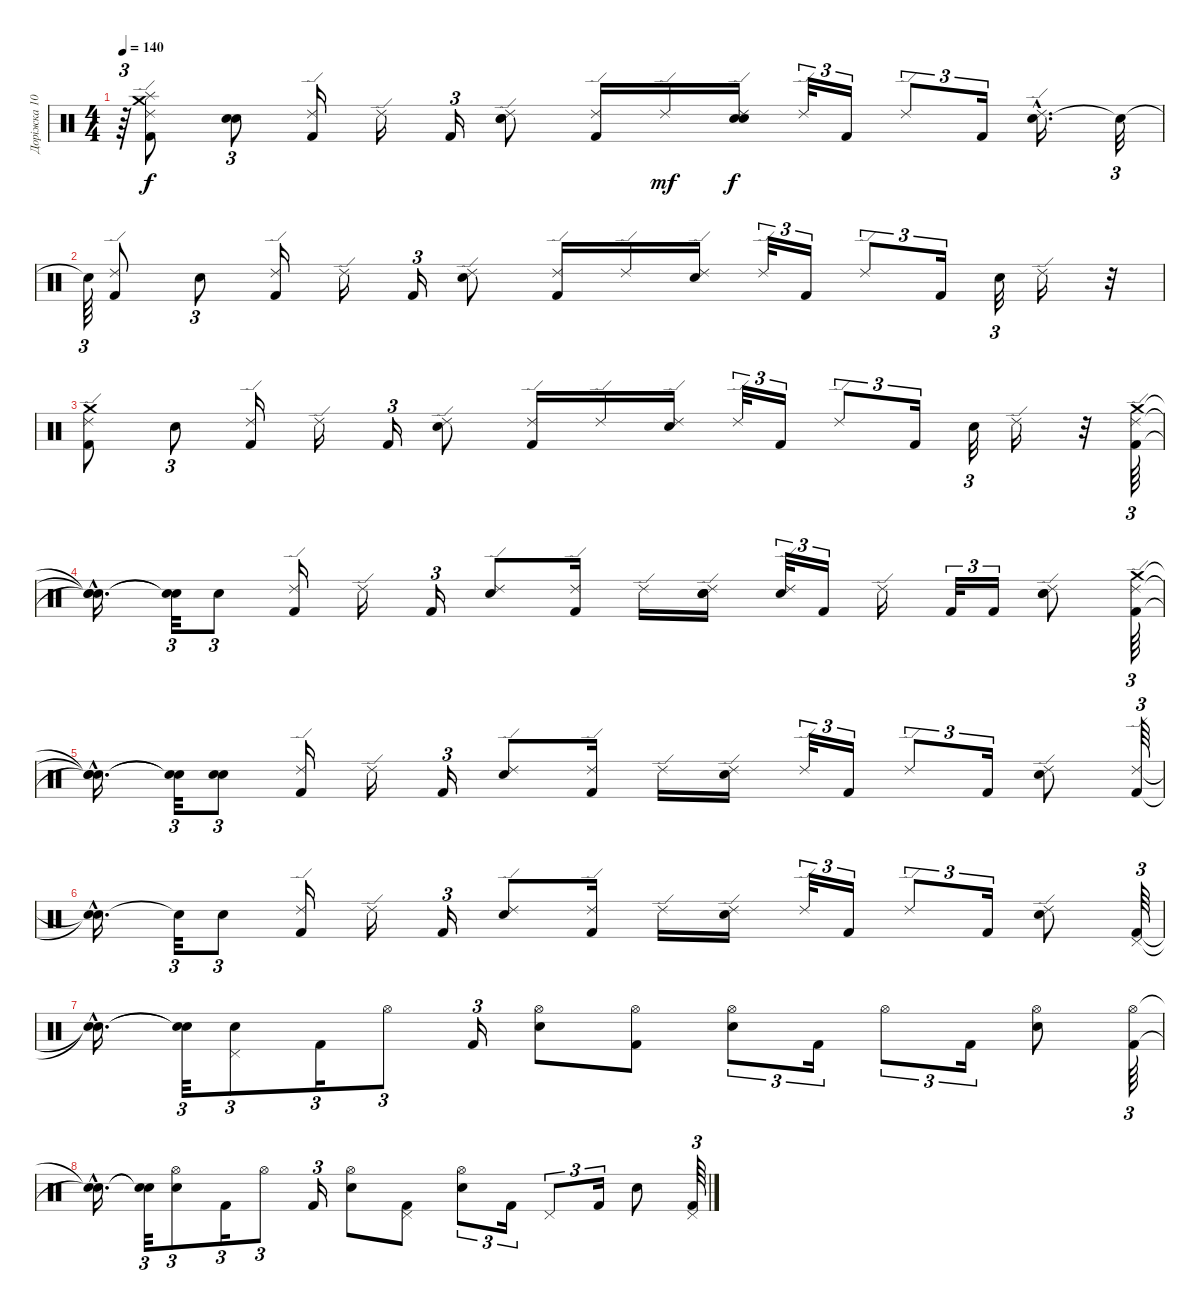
\track ("Доріжка 10" "Доріжка 10") {instrument percussion}
\staff {score}
\articulation defaults
\ts (4 4)
\tempo 140
\clef neutral
\ks c
r.64{tu (3 2) dy f} ("Kick (hit) 2" "Splash (hit)" "Ride (edge) 2" "Crash medium (hit)").8 ("Electric Snare (hit)" "Electric Snare (hit)").8{tu (3 2)} ("Kick (hit) 2" "Ride (edge) 2").16 "Ride (edge) 2".16 "Kick (hit) 2".16{tu (3 2)} ("Electric Snare (hit)" "Electric Snare (hit)" "Ride (edge) 2").8 ("Kick (hit) 2" "Ride (edge) 2").16 "Ride (edge) 2".16{dy mf} ("Electric Snare (hit)" "Electric Snare (hit)" "Ride (edge) 2").16{dy f} "Ride (edge) 2".32{tu (3 2)} "Kick (hit) 2".16{tu (3 2)} "Ride (edge) 2".8{tu (3 2)} "Kick (hit) 2".16{tu (3 2)} ("Electric Snare (hit)"{hac} "Ride (edge) 2").16{d} "Snare (hit)"{t}.32{tu (3 2)} |
"Snare (hit)"{t}.64{tu (3 2)} ("Ride (edge) 2" "Kick (hit) 2").8 "Electric Snare (hit)".8{tu (3 2)} ("Ride (edge) 2" "Kick (hit) 2").16 "Ride (edge) 2".16 "Kick (hit) 2".16{tu (3 2)} ("Ride (edge) 2" "Electric Snare (hit)").8 ("Ride (edge) 2" "Kick (hit) 2").16 "Ride (edge) 2".16 ("Ride (edge) 2" "Electric Snare (hit)").16 "Ride (edge) 2".32{tu (3 2)} "Kick (hit) 2".16{tu (3 2)} "Ride (edge) 2".8{tu (3 2)} "Kick (hit) 2".16{tu (3 2)} "Electric Snare (hit)".32{tu (3 2)} "Ride (edge) 2".16 r.32 |
("Ride (edge) 2" "Crash medium (hit)" "Kick (hit) 2").8 "Electric Snare (hit)".8{tu (3 2)} ("Kick (hit) 2" "Ride (edge) 2").16 "Ride (edge) 2".16 "Kick (hit) 2".16{tu (3 2)} ("Ride (edge) 2" "Electric Snare (hit)").8 ("Ride (edge) 2" "Kick (hit) 2").16 "Ride (edge) 2".16 ("Ride (edge) 2" "Electric Snare (hit)").16 "Ride (edge) 2".32{tu (3 2)} "Kick (hit) 2".16{tu (3 2)} "Ride (edge) 2".8{tu (3 2)} "Kick (hit) 2".16{tu (3 2)} "Electric Snare (hit)".32{tu (3 2)} "Ride (edge) 2".16 r.32 ("Ride (edge) 2" "Crash medium (hit)" "Kick (hit) 2").64{tu (3 2)} |
("Snare (hit)"{hac t} "Snare (hit)"{hac t} "Snare (hit)"{hac t}).16{d} ("Snare (hit)"{t} "Snare (hit)"{t}).32{tu (3 2)} "Electric Snare (hit)".8{tu (3 2)} ("Kick (hit) 2" "Ride (edge) 2").16 "Ride (edge) 2".16 "Kick (hit) 2".16{tu (3 2)} ("Ride (edge) 2" "Electric Snare (hit)").8 ("Ride (edge) 2" "Kick (hit) 2").16 "Ride (edge) 2".16 ("Ride (edge) 2" "Electric Snare (hit)" "Electric Snare (hit)" "Electric Snare (hit)").16 ("Ride (edge) 2" "Electric Snare (hit)").32{tu (3 2)} "Kick (hit) 2".16{tu (3 2)} "Ride (edge) 2".16 "Kick (hit) 2".32{tu (3 2)} "Kick (hit) 2".16{tu (3 2)} ("Electric Snare (hit)" "Electric Snare (hit)" "Ride (edge) 2").8 ("Ride (edge) 2" "Kick (hit) 2" "Crash medium (hit)").64{tu (3 2)} |
("Snare (hit)"{hac t} "Snare (hit)"{hac t} "Snare (hit)"{hac t}).16{d} ("Snare (hit)"{t} "Snare (hit)"{t}).32{tu (3 2)} ("Electric Snare (hit)" "Electric Snare (hit)").8{tu (3 2)} ("Ride (edge) 2" "Kick (hit) 2").16 "Ride (edge) 2".16 "Kick (hit) 2".16{tu (3 2)} ("Ride (edge) 2" "Electric Snare (hit)").8 ("Ride (edge) 2" "Kick (hit) 2").16 "Ride (edge) 2".16 ("Ride (edge) 2" "Electric Snare (hit)").16 "Ride (edge) 2".32{tu (3 2)} "Kick (hit) 2".16{tu (3 2)} "Ride (edge) 2".8{tu (3 2)} "Kick (hit) 2".16{tu (3 2)} ("Ride (edge) 2" "Electric Snare (hit)").8 ("Ride (edge) 2" "Kick (hit) 2").64{tu (3 2)} |
("Snare (hit)"{hac t} "Snare (hit)"{hac t}).16{d} "Snare (hit)"{t}.32{tu (3 2)} "Electric Snare (hit)".8{tu (3 2)} ("Ride (edge) 2" "Kick (hit) 2").16 "Ride (edge) 2".16 "Kick (hit) 2".16{tu (3 2)} ("Electric Snare (hit)" "Ride (edge) 2").8 ("Ride (edge) 2" "Kick (hit) 2").16 "Ride (edge) 2".16 ("Ride (edge) 2" "Electric Snare (hit)").16 "Ride (edge) 2".32{tu (3 2)} "Kick (hit) 2".16{tu (3 2)} "Ride (edge) 2".8{tu (3 2)} "Kick (hit) 2".16{tu (3 2)} ("Ride (edge) 2" "Electric Snare (hit)").8 ("Pedal Hi-Hat (hit)" "Kick (hit) 2").64{tu (3 2)} |
("Snare (hit)"{hac t} "Snare (hit)"{hac t}).16{d} ("Snare (hit)"{t} "Snare (hit)"{t}).32{tu (3 2)} ("Pedal Hi-Hat (hit)" "Electric Snare (hit)").8{tu (3 2)} "Kick (hit) 2".16{tu (3 2)} "Hi-Hat (open)".8{tu (3 2)} "Kick (hit) 2".16{tu (3 2)} ("Hi-Hat (open)" "Electric Snare (hit)").8 ("Hi-Hat (open)" "Kick (hit) 2").8 ("Hi-Hat (open)" "Electric Snare (hit)").8{tu (3 2)} "Kick (hit) 2".16{tu (3 2)} "Hi-Hat (open)".8{tu (3 2)} "Kick (hit) 2".16{tu (3 2)} ("Hi-Hat (open)" "Electric Snare (hit)").8 ("Hi-Hat (open)" "Kick (hit) 2").64{tu (3 2)} |
("Snare (hit)"{hac t} "Snare (hit)"{hac t}).16{d} ("Snare (hit)"{t} "Snare (hit)"{t}).32{tu (3 2)} ("Hi-Hat (open)" "Electric Snare (hit)").8{tu (3 2)} "Kick (hit) 2".16{tu (3 2)} "Hi-Hat (open)".8{tu (3 2)} "Kick (hit) 2".16{tu (3 2)} ("Electric Snare (hit)" "Hi-Hat (open)").8 ("Pedal Hi-Hat (hit)" "Kick (hit) 2").8 ("Hi-Hat (open)" "Electric Snare (hit)").8{tu (3 2)} "Kick (hit) 2".16{tu (3 2)} "Pedal Hi-Hat (hit)".8{tu (3 2)} "Kick (hit) 2".16{tu (3 2)} "Electric Snare (hit)".8 ("Pedal Hi-Hat (hit)" "Kick (hit) 2").64{tu (3 2)}
